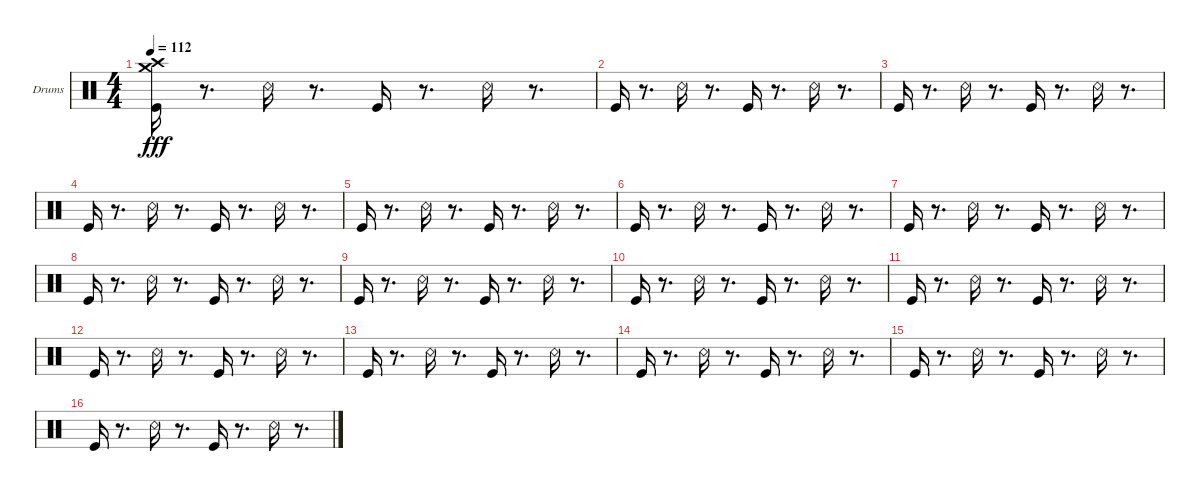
\bracketExtendMode groupsimilarinstruments
\firstSystemTrackNameOrientation horizontal
\otherSystemsTrackNameOrientation horizontal
\track ("drams" "Drums") {instrument percussion}
\staff {score}
\articulation defaults
\ts (4 4)
\tempo 112
\clef neutral
\ks c
("Kick (hit)" "Crash high (hit)" "Crash medium (hit)").16{dy fff} r.8{d} "Snare (rim shot)".16 r.8{d} "Kick (hit)".16 r.8{d} "Snare (rim shot)".16 r.8{d} |
"Kick (hit)".16 r.8{d} "Snare (rim shot)".16 r.8{d} "Kick (hit)".16 r.8{d} "Snare (rim shot)".16 r.8{d} |
"Kick (hit)".16 r.8{d} "Snare (rim shot)".16 r.8{d} "Kick (hit)".16 r.8{d} "Snare (rim shot)".16 r.8{d} |
"Kick (hit)".16 r.8{d} "Snare (rim shot)".16 r.8{d} "Kick (hit)".16 r.8{d} "Snare (rim shot)".16 r.8{d} |
"Kick (hit)".16 r.8{d} "Snare (rim shot)".16 r.8{d} "Kick (hit)".16 r.8{d} "Snare (rim shot)".16 r.8{d} |
"Kick (hit)".16 r.8{d} "Snare (rim shot)".16 r.8{d} "Kick (hit)".16 r.8{d} "Snare (rim shot)".16 r.8{d} |
"Kick (hit)".16 r.8{d} "Snare (rim shot)".16 r.8{d} "Kick (hit)".16 r.8{d} "Snare (rim shot)".16 r.8{d} |
"Kick (hit)".16 r.8{d} "Snare (rim shot)".16 r.8{d} "Kick (hit)".16 r.8{d} "Snare (rim shot)".16 r.8{d} |
"Kick (hit)".16 r.8{d} "Snare (rim shot)".16 r.8{d} "Kick (hit)".16 r.8{d} "Snare (rim shot)".16 r.8{d} |
"Kick (hit)".16 r.8{d} "Snare (rim shot)".16 r.8{d} "Kick (hit)".16 r.8{d} "Snare (rim shot)".16 r.8{d} |
"Kick (hit)".16 r.8{d} "Snare (rim shot)".16 r.8{d} "Kick (hit)".16 r.8{d} "Snare (rim shot)".16 r.8{d} |
"Kick (hit)".16 r.8{d} "Snare (rim shot)".16 r.8{d} "Kick (hit)".16 r.8{d} "Snare (rim shot)".16 r.8{d} |
"Kick (hit)".16 r.8{d} "Snare (rim shot)".16 r.8{d} "Kick (hit)".16 r.8{d} "Snare (rim shot)".16 r.8{d} |
"Kick (hit)".16 r.8{d} "Snare (rim shot)".16 r.8{d} "Kick (hit)".16 r.8{d} "Snare (rim shot)".16 r.8{d} |
"Kick (hit)".16 r.8{d} "Snare (rim shot)".16 r.8{d} "Kick (hit)".16 r.8{d} "Snare (rim shot)".16 r.8{d} |
"Kick (hit)".16 r.8{d} "Snare (rim shot)".16 r.8{d} "Kick (hit)".16 r.8{d} "Snare (rim shot)".16 r.8{d}
